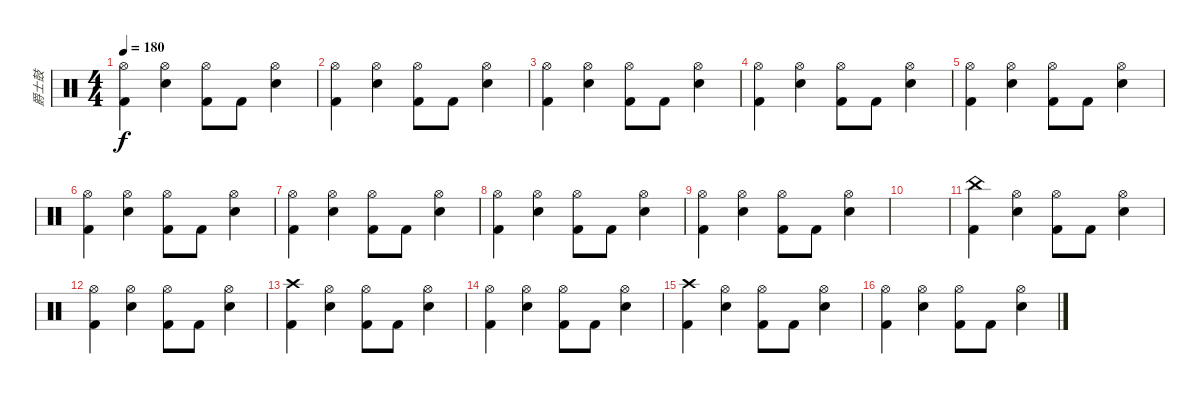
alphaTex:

\track ("爵士鼓" "爵士鼓") {instrument percussion}
\staff {score}
\articulation defaults
\ts (4 4)
\tempo 180
\clef neutral
\ks c
("Hi-Hat (open)" "Kick (hit) 2").4{dy f} ("Hi-Hat (open)" "Snare (hit) 2").4 ("Hi-Hat (open)" "Kick (hit) 2").8 "Kick (hit) 2".8 ("Hi-Hat (open)" "Snare (hit) 2").4 |
("Hi-Hat (open)" "Kick (hit) 2").4 ("Hi-Hat (open)" "Snare (hit) 2").4 ("Hi-Hat (open)" "Kick (hit) 2").8 "Kick (hit) 2".8 ("Hi-Hat (open)" "Snare (hit) 2").4 |
("Hi-Hat (open)" "Kick (hit) 2").4 ("Hi-Hat (open)" "Snare (hit) 2").4 ("Hi-Hat (open)" "Kick (hit) 2").8 "Kick (hit) 2".8 ("Hi-Hat (open)" "Snare (hit) 2").4 |
("Hi-Hat (open)" "Kick (hit) 2").4 ("Hi-Hat (open)" "Snare (hit) 2").4 ("Hi-Hat (open)" "Kick (hit) 2").8 "Kick (hit) 2".8 ("Hi-Hat (open)" "Snare (hit) 2").4 |
("Hi-Hat (open)" "Kick (hit) 2").4 ("Hi-Hat (open)" "Snare (hit) 2").4 ("Hi-Hat (open)" "Kick (hit) 2").8 "Kick (hit) 2".8 ("Hi-Hat (open)" "Snare (hit) 2").4 |
("Hi-Hat (open)" "Kick (hit) 2").4 ("Hi-Hat (open)" "Snare (hit) 2").4 ("Hi-Hat (open)" "Kick (hit) 2").8 "Kick (hit) 2".8 ("Hi-Hat (open)" "Snare (hit) 2").4 |
("Hi-Hat (open)" "Kick (hit) 2").4 ("Hi-Hat (open)" "Snare (hit) 2").4 ("Hi-Hat (open)" "Kick (hit) 2").8 "Kick (hit) 2".8 ("Hi-Hat (open)" "Snare (hit) 2").4 |
("Hi-Hat (open)" "Kick (hit) 2").4 ("Hi-Hat (open)" "Snare (hit) 2").4 ("Hi-Hat (open)" "Kick (hit) 2").8 "Kick (hit) 2".8 ("Hi-Hat (open)" "Snare (hit) 2").4 |
("Hi-Hat (open)" "Kick (hit) 2").4 ("Hi-Hat (open)" "Snare (hit) 2").4 ("Hi-Hat (open)" "Kick (hit) 2").8 "Kick (hit) 2".8 ("Hi-Hat (open)" "Snare (hit) 2").4 |
|
("China (hit)" "Kick (hit) 2").4 ("Hi-Hat (open)" "Snare (hit) 2").4 ("Hi-Hat (open)" "Kick (hit) 2").8 "Kick (hit) 2".8 ("Hi-Hat (open)" "Snare (hit) 2").4 |
("Hi-Hat (open)" "Kick (hit) 2").4 ("Hi-Hat (open)" "Snare (hit) 2").4 ("Hi-Hat (open)" "Kick (hit) 2").8 "Kick (hit) 2".8 ("Hi-Hat (open)" "Snare (hit) 2").4 |
("Crash high (hit)" "Kick (hit) 2").4 ("Hi-Hat (open)" "Snare (hit) 2").4 ("Hi-Hat (open)" "Kick (hit) 2").8 "Kick (hit) 2".8 ("Hi-Hat (open)" "Snare (hit) 2").4 |
("Hi-Hat (open)" "Kick (hit) 2").4 ("Hi-Hat (open)" "Snare (hit) 2").4 ("Hi-Hat (open)" "Kick (hit) 2").8 "Kick (hit) 2".8 ("Hi-Hat (open)" "Snare (hit) 2").4 |
("Crash high (hit)" "Kick (hit) 2").4 ("Hi-Hat (open)" "Snare (hit) 2").4 ("Hi-Hat (open)" "Kick (hit) 2").8 "Kick (hit) 2".8 ("Hi-Hat (open)" "Snare (hit) 2").4 |
("Hi-Hat (open)" "Kick (hit) 2").4 ("Hi-Hat (open)" "Snare (hit) 2").4 ("Hi-Hat (open)" "Kick (hit) 2").8 "Kick (hit) 2".8 ("Hi-Hat (open)" "Snare (hit) 2").4
